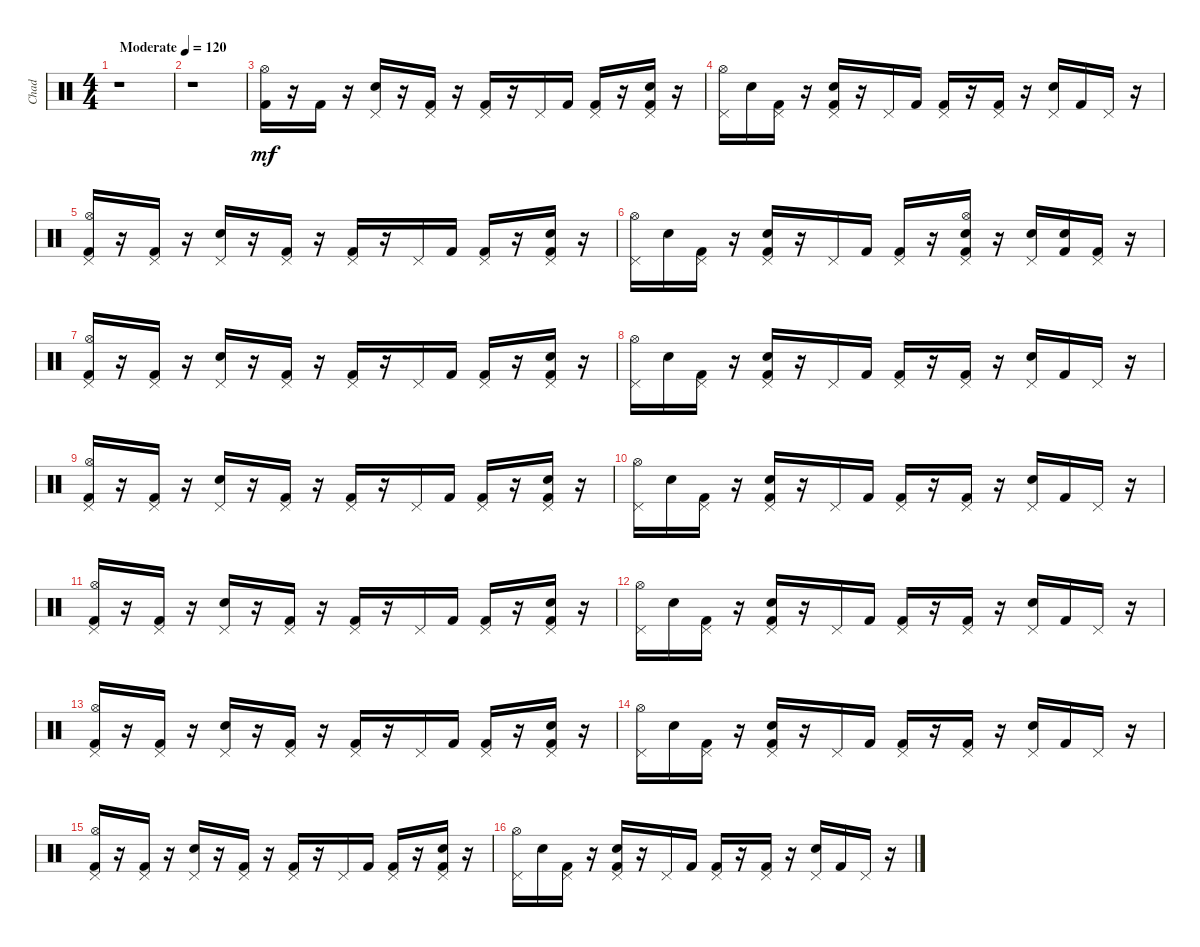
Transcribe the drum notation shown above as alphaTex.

\track ("Chad" "Chad") {instrument percussion}
\staff {score}
\articulation defaults
\ts (4 4)
\tempo (120 "Moderate")
\clef neutral
\ks c
r.1{dy mf} |
r.1 |
("Kick (hit) 2" "Hi-Hat (open)").16 r.16 "Kick (hit) 2".16 r.16 ("Snare (hit) 2" "Pedal Hi-Hat (hit)").16 r.16 ("Kick (hit) 2" "Pedal Hi-Hat (hit)").16 r.16 ("Kick (hit) 2" "Pedal Hi-Hat (hit)").16 r.16 "Pedal Hi-Hat (hit)".16 "Kick (hit) 2".16 ("Kick (hit) 2" "Pedal Hi-Hat (hit)").16 r.16 ("Kick (hit) 2" "Snare (hit) 2" "Pedal Hi-Hat (hit)").16 r.16 |
("Pedal Hi-Hat (hit)" "Hi-Hat (open)").16 "Snare (hit) 2".16 ("Kick (hit) 2" "Pedal Hi-Hat (hit)").16 r.16 ("Kick (hit) 2" "Snare (hit) 2" "Pedal Hi-Hat (hit)").16 r.16 "Pedal Hi-Hat (hit)".16 "Kick (hit) 2".16 ("Kick (hit) 2" "Pedal Hi-Hat (hit)").16 r.16 ("Kick (hit) 2" "Pedal Hi-Hat (hit)").16 r.16 ("Snare (hit) 2" "Pedal Hi-Hat (hit)").16 "Kick (hit) 2".16 "Pedal Hi-Hat (hit)".16 r.16 |
("Kick (hit) 2" "Pedal Hi-Hat (hit)" "Hi-Hat (open)").16 r.16 ("Kick (hit) 2" "Pedal Hi-Hat (hit)").16 r.16 ("Snare (hit) 2" "Pedal Hi-Hat (hit)").16 r.16 ("Kick (hit) 2" "Pedal Hi-Hat (hit)").16 r.16 ("Kick (hit) 2" "Pedal Hi-Hat (hit)").16 r.16 "Pedal Hi-Hat (hit)".16 "Kick (hit) 2".16 ("Kick (hit) 2" "Pedal Hi-Hat (hit)").16 r.16 ("Kick (hit) 2" "Snare (hit) 2" "Pedal Hi-Hat (hit)").16 r.16 |
("Pedal Hi-Hat (hit)" "Hi-Hat (open)").16 "Snare (hit) 2".16 ("Kick (hit) 2" "Pedal Hi-Hat (hit)").16 r.16 ("Kick (hit) 2" "Snare (hit) 2" "Pedal Hi-Hat (hit)").16 r.16 "Pedal Hi-Hat (hit)".16 "Kick (hit) 2".16 ("Kick (hit) 2" "Pedal Hi-Hat (hit)").16 r.16 ("Kick (hit) 2" "Snare (hit) 2" "Pedal Hi-Hat (hit)" "Hi-Hat (open)").16 r.16 ("Snare (hit) 2" "Pedal Hi-Hat (hit)").16 ("Kick (hit) 2" "Snare (hit) 2").16 ("Kick (hit) 2" "Pedal Hi-Hat (hit)").16 r.16 |
("Kick (hit) 2" "Pedal Hi-Hat (hit)" "Hi-Hat (open)").16 r.16 ("Kick (hit) 2" "Pedal Hi-Hat (hit)").16 r.16 ("Snare (hit) 2" "Pedal Hi-Hat (hit)").16 r.16 ("Kick (hit) 2" "Pedal Hi-Hat (hit)").16 r.16 ("Kick (hit) 2" "Pedal Hi-Hat (hit)").16 r.16 "Pedal Hi-Hat (hit)".16 "Kick (hit) 2".16 ("Kick (hit) 2" "Pedal Hi-Hat (hit)").16 r.16 ("Kick (hit) 2" "Snare (hit) 2" "Pedal Hi-Hat (hit)").16 r.16 |
("Pedal Hi-Hat (hit)" "Hi-Hat (open)").16 "Snare (hit) 2".16 ("Kick (hit) 2" "Pedal Hi-Hat (hit)").16 r.16 ("Kick (hit) 2" "Snare (hit) 2" "Pedal Hi-Hat (hit)").16 r.16 "Pedal Hi-Hat (hit)".16 "Kick (hit) 2".16 ("Kick (hit) 2" "Pedal Hi-Hat (hit)").16 r.16 ("Kick (hit) 2" "Pedal Hi-Hat (hit)").16 r.16 ("Snare (hit) 2" "Pedal Hi-Hat (hit)").16 "Kick (hit) 2".16 "Pedal Hi-Hat (hit)".16 r.16 |
("Kick (hit) 2" "Pedal Hi-Hat (hit)" "Hi-Hat (open)").16 r.16 ("Kick (hit) 2" "Pedal Hi-Hat (hit)").16 r.16 ("Snare (hit) 2" "Pedal Hi-Hat (hit)").16 r.16 ("Kick (hit) 2" "Pedal Hi-Hat (hit)").16 r.16 ("Kick (hit) 2" "Pedal Hi-Hat (hit)").16 r.16 "Pedal Hi-Hat (hit)".16 "Kick (hit) 2".16 ("Kick (hit) 2" "Pedal Hi-Hat (hit)").16 r.16 ("Kick (hit) 2" "Snare (hit) 2" "Pedal Hi-Hat (hit)").16 r.16 |
("Pedal Hi-Hat (hit)" "Hi-Hat (open)").16 "Snare (hit) 2".16 ("Kick (hit) 2" "Pedal Hi-Hat (hit)").16 r.16 ("Kick (hit) 2" "Snare (hit) 2" "Pedal Hi-Hat (hit)").16 r.16 "Pedal Hi-Hat (hit)".16 "Kick (hit) 2".16 ("Kick (hit) 2" "Pedal Hi-Hat (hit)").16 r.16 ("Kick (hit) 2" "Pedal Hi-Hat (hit)").16 r.16 ("Snare (hit) 2" "Pedal Hi-Hat (hit)").16 "Kick (hit) 2".16 "Pedal Hi-Hat (hit)".16 r.16 |
("Kick (hit) 2" "Pedal Hi-Hat (hit)" "Hi-Hat (open)").16 r.16 ("Kick (hit) 2" "Pedal Hi-Hat (hit)").16 r.16 ("Snare (hit) 2" "Pedal Hi-Hat (hit)").16 r.16 ("Kick (hit) 2" "Pedal Hi-Hat (hit)").16 r.16 ("Kick (hit) 2" "Pedal Hi-Hat (hit)").16 r.16 "Pedal Hi-Hat (hit)".16 "Kick (hit) 2".16 ("Kick (hit) 2" "Pedal Hi-Hat (hit)").16 r.16 ("Kick (hit) 2" "Snare (hit) 2" "Pedal Hi-Hat (hit)").16 r.16 |
("Pedal Hi-Hat (hit)" "Hi-Hat (open)").16 "Snare (hit) 2".16 ("Kick (hit) 2" "Pedal Hi-Hat (hit)").16 r.16 ("Kick (hit) 2" "Snare (hit) 2" "Pedal Hi-Hat (hit)").16 r.16 "Pedal Hi-Hat (hit)".16 "Kick (hit) 2".16 ("Kick (hit) 2" "Pedal Hi-Hat (hit)").16 r.16 ("Kick (hit) 2" "Pedal Hi-Hat (hit)").16 r.16 ("Snare (hit) 2" "Pedal Hi-Hat (hit)").16 "Kick (hit) 2".16 "Pedal Hi-Hat (hit)".16 r.16 |
("Kick (hit) 2" "Pedal Hi-Hat (hit)" "Hi-Hat (open)").16 r.16 ("Kick (hit) 2" "Pedal Hi-Hat (hit)").16 r.16 ("Snare (hit) 2" "Pedal Hi-Hat (hit)").16 r.16 ("Kick (hit) 2" "Pedal Hi-Hat (hit)").16 r.16 ("Kick (hit) 2" "Pedal Hi-Hat (hit)").16 r.16 "Pedal Hi-Hat (hit)".16 "Kick (hit) 2".16 ("Kick (hit) 2" "Pedal Hi-Hat (hit)").16 r.16 ("Kick (hit) 2" "Snare (hit) 2" "Pedal Hi-Hat (hit)").16 r.16 |
("Pedal Hi-Hat (hit)" "Hi-Hat (open)").16 "Snare (hit) 2".16 ("Kick (hit) 2" "Pedal Hi-Hat (hit)").16 r.16 ("Kick (hit) 2" "Snare (hit) 2" "Pedal Hi-Hat (hit)").16 r.16 "Pedal Hi-Hat (hit)".16 "Kick (hit) 2".16 ("Kick (hit) 2" "Pedal Hi-Hat (hit)").16 r.16 ("Kick (hit) 2" "Pedal Hi-Hat (hit)").16 r.16 ("Snare (hit) 2" "Pedal Hi-Hat (hit)").16 "Kick (hit) 2".16 "Pedal Hi-Hat (hit)".16 r.16 |
("Kick (hit) 2" "Pedal Hi-Hat (hit)" "Hi-Hat (open)").16 r.16 ("Kick (hit) 2" "Pedal Hi-Hat (hit)").16 r.16 ("Snare (hit) 2" "Pedal Hi-Hat (hit)").16 r.16 ("Kick (hit) 2" "Pedal Hi-Hat (hit)").16 r.16 ("Kick (hit) 2" "Pedal Hi-Hat (hit)").16 r.16 "Pedal Hi-Hat (hit)".16 "Kick (hit) 2".16 ("Kick (hit) 2" "Pedal Hi-Hat (hit)").16 r.16 ("Kick (hit) 2" "Snare (hit) 2" "Pedal Hi-Hat (hit)").16 r.16 |
("Pedal Hi-Hat (hit)" "Hi-Hat (open)").16 "Snare (hit) 2".16 ("Kick (hit) 2" "Pedal Hi-Hat (hit)").16 r.16 ("Kick (hit) 2" "Snare (hit) 2" "Pedal Hi-Hat (hit)").16 r.16 "Pedal Hi-Hat (hit)".16 "Kick (hit) 2".16 ("Kick (hit) 2" "Pedal Hi-Hat (hit)").16 r.16 ("Kick (hit) 2" "Pedal Hi-Hat (hit)").16 r.16 ("Snare (hit) 2" "Pedal Hi-Hat (hit)").16 "Kick (hit) 2".16 "Pedal Hi-Hat (hit)".16 r.16
